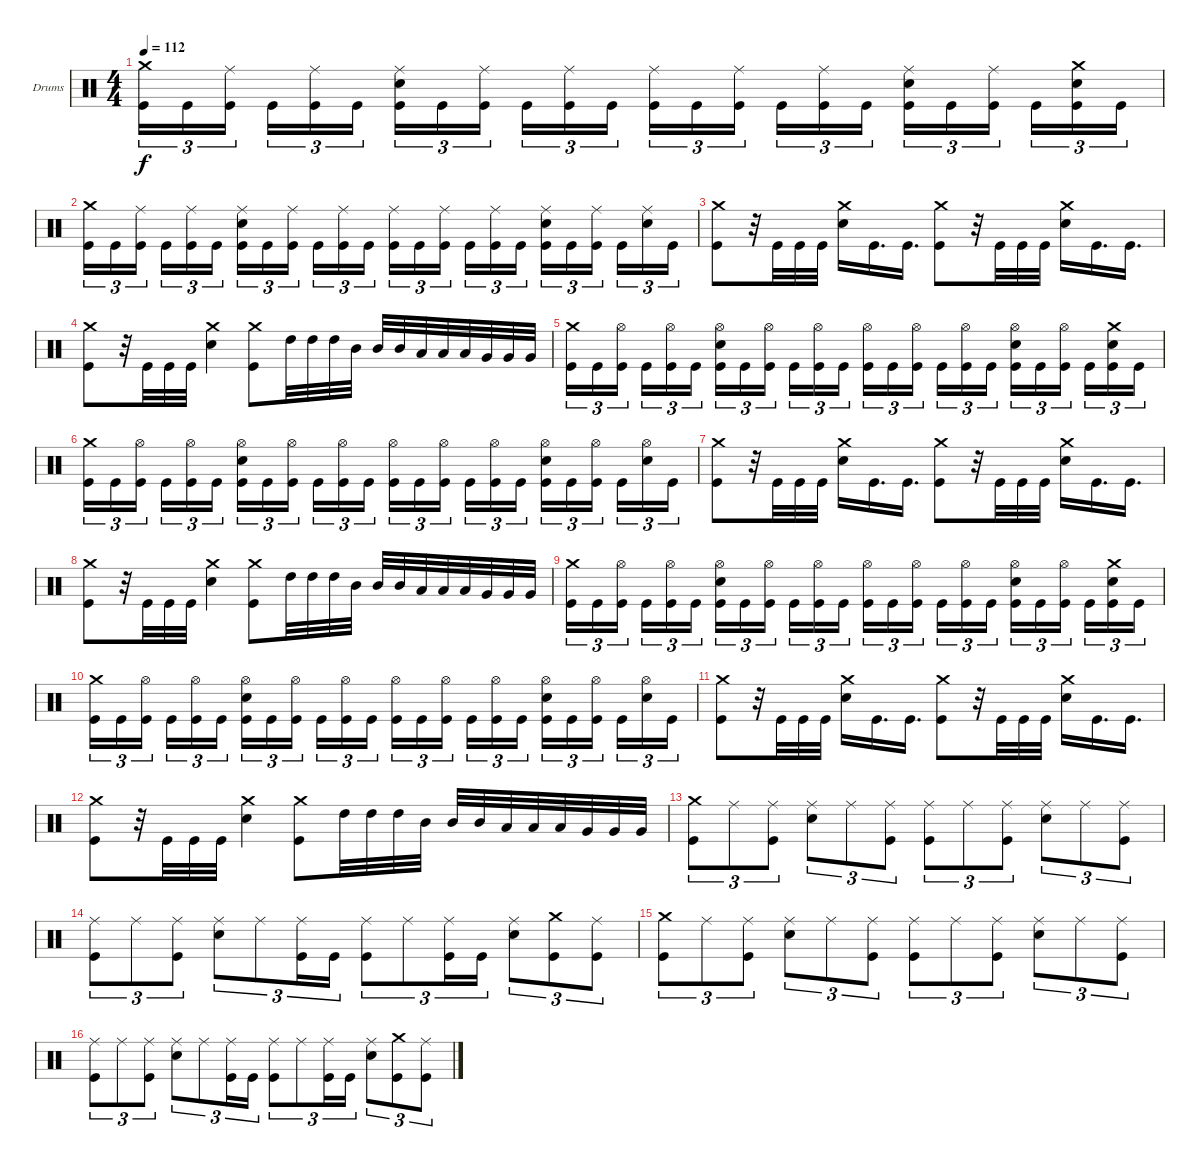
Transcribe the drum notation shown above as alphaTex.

\bracketExtendMode groupsimilarinstruments
\firstSystemTrackNameOrientation horizontal
\otherSystemsTrackNameOrientation horizontal
\track ("Drumkit" "Drums") {instrument percussion}
\staff {score}
\articulation defaults
\ts (4 4)
\tempo 112
\clef neutral
\ks c
("Crash medium (hit)" "Kick (hit)").16{tu (3 2) dy f} "Kick (hit)".16{tu (3 2)} ("Ride (middle)" "Kick (hit)").16{tu (3 2)} "Kick (hit)".16{tu (3 2)} ("Ride (middle)" "Kick (hit)").16{tu (3 2)} "Kick (hit)".16{tu (3 2)} ("Ride (middle)" "Kick (hit)" "Snare (hit) 2").16{tu (3 2)} "Kick (hit)".16{tu (3 2)} ("Ride (middle)" "Kick (hit)").16{tu (3 2)} "Kick (hit)".16{tu (3 2)} ("Ride (middle)" "Kick (hit)").16{tu (3 2)} "Kick (hit)".16{tu (3 2)} ("Ride (middle)" "Kick (hit)").16{tu (3 2)} "Kick (hit)".16{tu (3 2)} ("Ride (middle)" "Kick (hit)").16{tu (3 2)} "Kick (hit)".16{tu (3 2)} ("Ride (middle)" "Kick (hit)").16{tu (3 2)} "Kick (hit)".16{tu (3 2)} ("Ride (middle)" "Kick (hit)" "Snare (hit) 2").16{tu (3 2)} "Kick (hit)".16{tu (3 2)} ("Ride (middle)" "Kick (hit)").16{tu (3 2)} "Kick (hit)".16{tu (3 2)} ("Crash medium (hit)" "Snare (hit) 2" "Kick (hit)").16{tu (3 2)} "Kick (hit)".16{tu (3 2)} |
("Crash medium (hit)" "Kick (hit)").16{tu (3 2)} "Kick (hit)".16{tu (3 2)} ("Ride (middle)" "Kick (hit)").16{tu (3 2)} "Kick (hit)".16{tu (3 2)} ("Ride (middle)" "Kick (hit)").16{tu (3 2)} "Kick (hit)".16{tu (3 2)} ("Ride (middle)" "Kick (hit)" "Snare (hit) 2").16{tu (3 2)} "Kick (hit)".16{tu (3 2)} ("Ride (middle)" "Kick (hit)").16{tu (3 2)} "Kick (hit)".16{tu (3 2)} ("Ride (middle)" "Kick (hit)").16{tu (3 2)} "Kick (hit)".16{tu (3 2)} ("Ride (middle)" "Kick (hit)").16{tu (3 2)} "Kick (hit)".16{tu (3 2)} ("Ride (middle)" "Kick (hit)").16{tu (3 2)} "Kick (hit)".16{tu (3 2)} ("Ride (middle)" "Kick (hit)").16{tu (3 2)} "Kick (hit)".16{tu (3 2)} ("Ride (middle)" "Kick (hit)" "Snare (hit) 2").16{tu (3 2)} "Kick (hit)".16{tu (3 2)} ("Ride (middle)" "Kick (hit)").16{tu (3 2)} "Kick (hit)".16{tu (3 2)} ("Ride (middle)" "Snare (hit) 2").16{tu (3 2)} "Kick (hit)".16{tu (3 2)} |
("Crash medium (hit)" "Kick (hit)").8 r.32 "Kick (hit)".32 "Kick (hit)".32 "Kick (hit)".32 ("Crash medium (hit)" "Snare (hit) 2").16 "Kick (hit)".16{d} "Kick (hit)".16{d} ("Crash medium (hit)" "Kick (hit)").8 r.32 "Kick (hit)".32 "Kick (hit)".32 "Kick (hit)".32 ("Crash medium (hit)" "Snare (hit) 2").16 "Kick (hit)".16{d} "Kick (hit)".16{d} |
("Crash medium (hit)" "Kick (hit)").8 r.32 "Kick (hit)".32 "Kick (hit)".32 "Kick (hit)".32 ("Crash medium (hit)" "Snare (hit) 2").4 ("Crash medium (hit)" "Kick (hit)").8 "High Tom (hit)".32 "High Tom (hit)".32 "High Tom (hit)".32 "Mid Tom (hit)".32 "Mid Tom (hit)".32 "Mid Tom (hit)".32 "Low Tom (hit)".32 "Low Tom (hit)".32 "Low Tom (hit)".32 "Very Low Tom (hit)".32 "Very Low Tom (hit)".32 "Very Low Tom (hit)".32 |
("Crash medium (hit)" "Kick (hit)").16{tu (3 2)} "Kick (hit)".16{tu (3 2)} ("Hi-Hat (open)" "Kick (hit)").16{tu (3 2)} "Kick (hit)".16{tu (3 2)} ("Hi-Hat (open)" "Kick (hit)").16{tu (3 2)} "Kick (hit)".16{tu (3 2)} ("Hi-Hat (open)" "Kick (hit)" "Snare (hit) 2").16{tu (3 2)} "Kick (hit)".16{tu (3 2)} ("Hi-Hat (open)" "Kick (hit)").16{tu (3 2)} "Kick (hit)".16{tu (3 2)} ("Hi-Hat (open)" "Kick (hit)").16{tu (3 2)} "Kick (hit)".16{tu (3 2)} ("Hi-Hat (open)" "Kick (hit)").16{tu (3 2)} "Kick (hit)".16{tu (3 2)} ("Hi-Hat (open)" "Kick (hit)").16{tu (3 2)} "Kick (hit)".16{tu (3 2)} ("Hi-Hat (open)" "Kick (hit)").16{tu (3 2)} "Kick (hit)".16{tu (3 2)} ("Hi-Hat (open)" "Kick (hit)" "Snare (hit) 2").16{tu (3 2)} "Kick (hit)".16{tu (3 2)} ("Hi-Hat (open)" "Kick (hit)").16{tu (3 2)} "Kick (hit)".16{tu (3 2)} ("Crash medium (hit)" "Snare (hit) 2" "Kick (hit)").16{tu (3 2)} "Kick (hit)".16{tu (3 2)} |
("Crash medium (hit)" "Kick (hit)").16{tu (3 2)} "Kick (hit)".16{tu (3 2)} ("Hi-Hat (open)" "Kick (hit)").16{tu (3 2)} "Kick (hit)".16{tu (3 2)} ("Hi-Hat (open)" "Kick (hit)").16{tu (3 2)} "Kick (hit)".16{tu (3 2)} ("Hi-Hat (open)" "Kick (hit)" "Snare (hit) 2").16{tu (3 2)} "Kick (hit)".16{tu (3 2)} ("Hi-Hat (open)" "Kick (hit)").16{tu (3 2)} "Kick (hit)".16{tu (3 2)} ("Hi-Hat (open)" "Kick (hit)").16{tu (3 2)} "Kick (hit)".16{tu (3 2)} ("Hi-Hat (open)" "Kick (hit)").16{tu (3 2)} "Kick (hit)".16{tu (3 2)} ("Hi-Hat (open)" "Kick (hit)").16{tu (3 2)} "Kick (hit)".16{tu (3 2)} ("Hi-Hat (open)" "Kick (hit)").16{tu (3 2)} "Kick (hit)".16{tu (3 2)} ("Hi-Hat (open)" "Kick (hit)" "Snare (hit) 2").16{tu (3 2)} "Kick (hit)".16{tu (3 2)} ("Hi-Hat (open)" "Kick (hit)").16{tu (3 2)} "Kick (hit)".16{tu (3 2)} ("Hi-Hat (open)" "Snare (hit) 2").16{tu (3 2)} "Kick (hit)".16{tu (3 2)} |
("Crash medium (hit)" "Kick (hit)").8 r.32 "Kick (hit)".32 "Kick (hit)".32 "Kick (hit)".32 ("Crash medium (hit)" "Snare (hit) 2").16 "Kick (hit)".16{d} "Kick (hit)".16{d} ("Crash medium (hit)" "Kick (hit)").8 r.32 "Kick (hit)".32 "Kick (hit)".32 "Kick (hit)".32 ("Crash medium (hit)" "Snare (hit) 2").16 "Kick (hit)".16{d} "Kick (hit)".16{d} |
("Crash medium (hit)" "Kick (hit)").8 r.32 "Kick (hit)".32 "Kick (hit)".32 "Kick (hit)".32 ("Crash medium (hit)" "Snare (hit) 2").4 ("Crash medium (hit)" "Kick (hit)").8 "High Tom (hit)".32 "High Tom (hit)".32 "High Tom (hit)".32 "Mid Tom (hit)".32 "Mid Tom (hit)".32 "Mid Tom (hit)".32 "Low Tom (hit)".32 "Low Tom (hit)".32 "Low Tom (hit)".32 "Very Low Tom (hit)".32 "Very Low Tom (hit)".32 "Very Low Tom (hit)".32 |
("Crash medium (hit)" "Kick (hit)").16{tu (3 2)} "Kick (hit)".16{tu (3 2)} ("Hi-Hat (open)" "Kick (hit)").16{tu (3 2)} "Kick (hit)".16{tu (3 2)} ("Hi-Hat (open)" "Kick (hit)").16{tu (3 2)} "Kick (hit)".16{tu (3 2)} ("Hi-Hat (open)" "Kick (hit)" "Snare (hit) 2").16{tu (3 2)} "Kick (hit)".16{tu (3 2)} ("Hi-Hat (open)" "Kick (hit)").16{tu (3 2)} "Kick (hit)".16{tu (3 2)} ("Hi-Hat (open)" "Kick (hit)").16{tu (3 2)} "Kick (hit)".16{tu (3 2)} ("Hi-Hat (open)" "Kick (hit)").16{tu (3 2)} "Kick (hit)".16{tu (3 2)} ("Hi-Hat (open)" "Kick (hit)").16{tu (3 2)} "Kick (hit)".16{tu (3 2)} ("Hi-Hat (open)" "Kick (hit)").16{tu (3 2)} "Kick (hit)".16{tu (3 2)} ("Hi-Hat (open)" "Kick (hit)" "Snare (hit) 2").16{tu (3 2)} "Kick (hit)".16{tu (3 2)} ("Hi-Hat (open)" "Kick (hit)").16{tu (3 2)} "Kick (hit)".16{tu (3 2)} ("Crash medium (hit)" "Snare (hit) 2" "Kick (hit)").16{tu (3 2)} "Kick (hit)".16{tu (3 2)} |
("Crash medium (hit)" "Kick (hit)").16{tu (3 2)} "Kick (hit)".16{tu (3 2)} ("Hi-Hat (open)" "Kick (hit)").16{tu (3 2)} "Kick (hit)".16{tu (3 2)} ("Hi-Hat (open)" "Kick (hit)").16{tu (3 2)} "Kick (hit)".16{tu (3 2)} ("Hi-Hat (open)" "Kick (hit)" "Snare (hit) 2").16{tu (3 2)} "Kick (hit)".16{tu (3 2)} ("Hi-Hat (open)" "Kick (hit)").16{tu (3 2)} "Kick (hit)".16{tu (3 2)} ("Hi-Hat (open)" "Kick (hit)").16{tu (3 2)} "Kick (hit)".16{tu (3 2)} ("Hi-Hat (open)" "Kick (hit)").16{tu (3 2)} "Kick (hit)".16{tu (3 2)} ("Hi-Hat (open)" "Kick (hit)").16{tu (3 2)} "Kick (hit)".16{tu (3 2)} ("Hi-Hat (open)" "Kick (hit)").16{tu (3 2)} "Kick (hit)".16{tu (3 2)} ("Hi-Hat (open)" "Kick (hit)" "Snare (hit) 2").16{tu (3 2)} "Kick (hit)".16{tu (3 2)} ("Hi-Hat (open)" "Kick (hit)").16{tu (3 2)} "Kick (hit)".16{tu (3 2)} ("Hi-Hat (open)" "Snare (hit) 2").16{tu (3 2)} "Kick (hit)".16{tu (3 2)} |
("Crash medium (hit)" "Kick (hit)").8 r.32 "Kick (hit)".32 "Kick (hit)".32 "Kick (hit)".32 ("Crash medium (hit)" "Snare (hit) 2").16 "Kick (hit)".16{d} "Kick (hit)".16{d} ("Crash medium (hit)" "Kick (hit)").8 r.32 "Kick (hit)".32 "Kick (hit)".32 "Kick (hit)".32 ("Crash medium (hit)" "Snare (hit) 2").16 "Kick (hit)".16{d} "Kick (hit)".16{d} |
("Crash medium (hit)" "Kick (hit)").8 r.32 "Kick (hit)".32 "Kick (hit)".32 "Kick (hit)".32 ("Crash medium (hit)" "Snare (hit) 2").4 ("Crash medium (hit)" "Kick (hit)").8 "High Tom (hit)".32 "High Tom (hit)".32 "High Tom (hit)".32 "Mid Tom (hit)".32 "Mid Tom (hit)".32 "Mid Tom (hit)".32 "Low Tom (hit)".32 "Low Tom (hit)".32 "Low Tom (hit)".32 "Very Low Tom (hit)".32 "Very Low Tom (hit)".32 "Very Low Tom (hit)".32 |
("Crash medium (hit)" "Kick (hit)").8{tu (3 2)} "Ride (middle)".8{tu (3 2)} ("Ride (middle)" "Kick (hit)").8{tu (3 2)} ("Ride (middle)" "Snare (hit) 2").8{tu (3 2)} "Ride (middle)".8{tu (3 2)} ("Ride (middle)" "Kick (hit)").8{tu (3 2)} ("Ride (middle)" "Kick (hit)").8{tu (3 2)} "Ride (middle)".8{tu (3 2)} ("Ride (middle)" "Kick (hit)").8{tu (3 2)} ("Ride (middle)" "Snare (hit) 2").8{tu (3 2)} "Ride (middle)".8{tu (3 2)} ("Ride (middle)" "Kick (hit)").8{tu (3 2)} |
("Ride (middle)" "Kick (hit)").8{tu (3 2)} "Ride (middle)".8{tu (3 2)} ("Ride (middle)" "Kick (hit)").8{tu (3 2)} ("Ride (middle)" "Snare (hit) 2").8{tu (3 2)} "Ride (middle)".8{tu (3 2)} ("Ride (middle)" "Kick (hit)").16{tu (3 2)} "Kick (hit)".16{tu (3 2)} ("Ride (middle)" "Kick (hit)").8{tu (3 2)} "Ride (middle)".8{tu (3 2)} ("Ride (middle)" "Kick (hit)").16{tu (3 2)} "Kick (hit)".16{tu (3 2)} ("Ride (middle)" "Snare (hit) 2").8{tu (3 2)} ("Crash medium (hit)" "Kick (hit)").8{tu (3 2)} ("Ride (middle)" "Kick (hit)").8{tu (3 2)} |
("Crash medium (hit)" "Kick (hit)").8{tu (3 2)} "Ride (middle)".8{tu (3 2)} ("Ride (middle)" "Kick (hit)").8{tu (3 2)} ("Ride (middle)" "Snare (hit) 2").8{tu (3 2)} "Ride (middle)".8{tu (3 2)} ("Ride (middle)" "Kick (hit)").8{tu (3 2)} ("Ride (middle)" "Kick (hit)").8{tu (3 2)} "Ride (middle)".8{tu (3 2)} ("Ride (middle)" "Kick (hit)").8{tu (3 2)} ("Ride (middle)" "Snare (hit) 2").8{tu (3 2)} "Ride (middle)".8{tu (3 2)} ("Ride (middle)" "Kick (hit)").8{tu (3 2)} |
("Ride (middle)" "Kick (hit)").8{tu (3 2)} "Ride (middle)".8{tu (3 2)} ("Ride (middle)" "Kick (hit)").8{tu (3 2)} ("Ride (middle)" "Snare (hit) 2").8{tu (3 2)} "Ride (middle)".8{tu (3 2)} ("Ride (middle)" "Kick (hit)").16{tu (3 2)} "Kick (hit)".16{tu (3 2)} ("Ride (middle)" "Kick (hit)").8{tu (3 2)} "Ride (middle)".8{tu (3 2)} ("Ride (middle)" "Kick (hit)").16{tu (3 2)} "Kick (hit)".16{tu (3 2)} ("Ride (middle)" "Snare (hit) 2").8{tu (3 2)} ("Crash medium (hit)" "Kick (hit)").8{tu (3 2)} ("Ride (middle)" "Kick (hit)").8{tu (3 2)}
